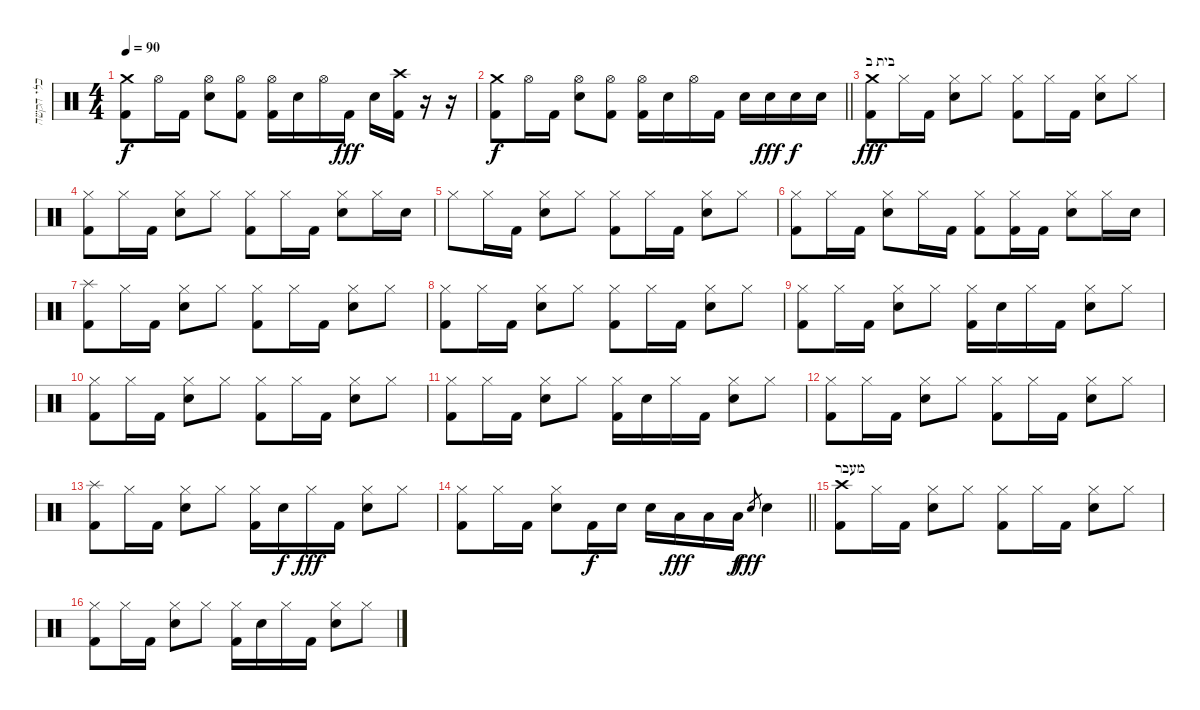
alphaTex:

\track ("כלי הקשה" "כלי הקשה") {instrument percussion}
\staff {score}
\articulation defaults
\ts (4 4)
\tempo 90
\clef neutral
\ks c
("Crash medium (hit)" "Kick (hit) 2").8{dy f} "Hi-Hat (open)".16 "Kick (hit) 2".16 ("Hi-Hat (open)" "Electric Snare (hit)").8 ("Hi-Hat (open)" "Kick (hit) 2").8 ("Hi-Hat (open)" "Kick (hit) 2").16 "Electric Snare (hit)".16 "Hi-Hat (open)".16 "Kick (hit) 2".16{dy fff} "Electric Snare (hit)".16 ("Crash high (hit)" "Kick (hit) 2").16 r.16 r.16 |
\barLineRight lightlight
("Crash medium (hit)" "Kick (hit) 2").8{dy f} "Hi-Hat (open)".16 "Kick (hit) 2".16 ("Hi-Hat (open)" "Electric Snare (hit)").8 ("Hi-Hat (open)" "Kick (hit) 2").8 ("Hi-Hat (open)" "Kick (hit) 2").16 "Electric Snare (hit)".16 "Hi-Hat (open)".16 "Kick (hit) 2".16 "Electric Snare (hit)".16 "Electric Snare (hit)".16{dy fff} "Electric Snare (hit)".16{dy f} "Electric Snare (hit)".16 |
\section ("" "בית ב")
("Crash medium (hit)" "Kick (hit) 2").8{dy fff} "Hi-Hat (closed)".16 "Kick (hit) 2".16 ("Hi-Hat (closed)" "Electric Snare (hit)").8 "Hi-Hat (closed)".8 ("Hi-Hat (closed)" "Kick (hit) 2").8 "Hi-Hat (closed)".16 "Kick (hit) 2".16 ("Hi-Hat (closed)" "Electric Snare (hit)").8 "Hi-Hat (closed)".8 |
("Hi-Hat (closed)" "Kick (hit) 2").8 "Hi-Hat (closed)".16 "Kick (hit) 2".16 ("Hi-Hat (closed)" "Electric Snare (hit)").8 "Hi-Hat (closed)".8 ("Hi-Hat (closed)" "Kick (hit) 2").8 "Hi-Hat (closed)".16 "Kick (hit) 2".16 ("Hi-Hat (closed)" "Electric Snare (hit)").8 "Hi-Hat (closed)".16 "Electric Snare (hit)".16 |
"Hi-Hat (closed)".8 "Hi-Hat (closed)".16 "Kick (hit) 2".16 ("Hi-Hat (closed)" "Electric Snare (hit)").8 "Hi-Hat (closed)".8 ("Hi-Hat (closed)" "Kick (hit) 2").8 "Hi-Hat (closed)".16 "Kick (hit) 2".16 ("Hi-Hat (closed)" "Electric Snare (hit)").8 "Hi-Hat (closed)".8 |
("Hi-Hat (closed)" "Kick (hit) 2").8 "Hi-Hat (closed)".16 "Kick (hit) 2".16 ("Hi-Hat (closed)" "Electric Snare (hit)").8 "Hi-Hat (closed)".16 "Kick (hit) 2".16 ("Hi-Hat (closed)" "Kick (hit) 2").8 ("Hi-Hat (closed)" "Kick (hit) 2").16 "Kick (hit) 2".16 ("Hi-Hat (closed)" "Electric Snare (hit)").8 "Hi-Hat (closed)".16 "Electric Snare (hit)".16 |
("Splash (hit)" "Kick (hit) 2").8 "Hi-Hat (closed)".16 "Kick (hit) 2".16 ("Hi-Hat (closed)" "Electric Snare (hit)").8 "Hi-Hat (closed)".8 ("Hi-Hat (closed)" "Kick (hit) 2").8 "Hi-Hat (closed)".16 "Kick (hit) 2".16 ("Hi-Hat (closed)" "Electric Snare (hit)").8 "Hi-Hat (closed)".8 |
("Hi-Hat (closed)" "Kick (hit) 2").8 "Hi-Hat (closed)".16 "Kick (hit) 2".16 ("Hi-Hat (closed)" "Electric Snare (hit)").8 "Hi-Hat (closed)".8 ("Hi-Hat (closed)" "Kick (hit) 2").8 "Hi-Hat (closed)".16 "Kick (hit) 2".16 ("Hi-Hat (closed)" "Electric Snare (hit)").8 "Hi-Hat (closed)".8 |
("Hi-Hat (closed)" "Kick (hit) 2").8 "Hi-Hat (closed)".16 "Kick (hit) 2".16 ("Hi-Hat (closed)" "Electric Snare (hit)").8 "Hi-Hat (closed)".8 ("Hi-Hat (closed)" "Kick (hit) 2").16 "Electric Snare (hit)".16 "Hi-Hat (closed)".16 "Kick (hit) 2".16 ("Hi-Hat (closed)" "Electric Snare (hit)").8 "Hi-Hat (closed)".8 |
("Hi-Hat (closed)" "Kick (hit) 2").8 "Hi-Hat (closed)".16 "Kick (hit) 2".16 ("Hi-Hat (closed)" "Electric Snare (hit)").8 "Hi-Hat (closed)".8 ("Hi-Hat (closed)" "Kick (hit) 2").8 "Hi-Hat (closed)".16 "Kick (hit) 2".16 ("Hi-Hat (closed)" "Electric Snare (hit)").8 "Hi-Hat (closed)".8 |
("Hi-Hat (closed)" "Kick (hit) 2").8 "Hi-Hat (closed)".16 "Kick (hit) 2".16 ("Hi-Hat (closed)" "Electric Snare (hit)").8 "Hi-Hat (closed)".8 ("Hi-Hat (closed)" "Kick (hit) 2").16 "Electric Snare (hit)".16 "Hi-Hat (closed)".16 "Kick (hit) 2".16 ("Hi-Hat (closed)" "Electric Snare (hit)").8 "Hi-Hat (closed)".8 |
("Hi-Hat (closed)" "Kick (hit) 2").8 "Hi-Hat (closed)".16 "Kick (hit) 2".16 ("Hi-Hat (closed)" "Electric Snare (hit)").8 "Hi-Hat (closed)".8 ("Hi-Hat (closed)" "Kick (hit) 2").8 "Hi-Hat (closed)".16 "Kick (hit) 2".16 ("Hi-Hat (closed)" "Electric Snare (hit)").8 "Hi-Hat (closed)".8 |
("Splash (hit)" "Kick (hit) 2").8 "Hi-Hat (closed)".16 "Kick (hit) 2".16 ("Hi-Hat (closed)" "Electric Snare (hit)").8 "Hi-Hat (closed)".8 ("Hi-Hat (closed)" "Kick (hit) 2").16 "Electric Snare (hit)".16{dy f} "Hi-Hat (closed)".16{dy fff} "Kick (hit) 2".16 ("Hi-Hat (closed)" "Electric Snare (hit)").8 "Hi-Hat (closed)".8 |
\barLineRight lightlight
("Hi-Hat (closed)" "Kick (hit) 2").8 "Hi-Hat (closed)".16 "Kick (hit) 2".16 ("Hi-Hat (closed)" "Electric Snare (hit)").8 "Kick (hit) 2".16{dy f} "Electric Snare (hit)".16 "Electric Snare (hit)".16 "Low Tom (hit)".16{dy fff} "Low Tom (hit)".16 "Low Tom (hit)".16{dy f} "Electric Snare (hit)".8{gr dy fff} "Electric Snare (hit)".4 |
\section ("" "מעבר")
("Crash high (hit)" "Kick (hit) 2").8 "Hi-Hat (closed)".16 "Kick (hit) 2".16 ("Hi-Hat (closed)" "Electric Snare (hit)").8 "Hi-Hat (closed)".8 ("Hi-Hat (closed)" "Kick (hit) 2").8 "Hi-Hat (closed)".16 "Kick (hit) 2".16 ("Hi-Hat (closed)" "Electric Snare (hit)").8 "Hi-Hat (closed)".8 |
("Hi-Hat (closed)" "Kick (hit) 2").8 "Hi-Hat (closed)".16 "Kick (hit) 2".16 ("Hi-Hat (closed)" "Electric Snare (hit)").8 "Hi-Hat (closed)".8 ("Hi-Hat (closed)" "Kick (hit) 2").16 "Electric Snare (hit)".16 "Hi-Hat (closed)".16 "Kick (hit) 2".16 ("Hi-Hat (closed)" "Electric Snare (hit)").8 "Hi-Hat (closed)".8
